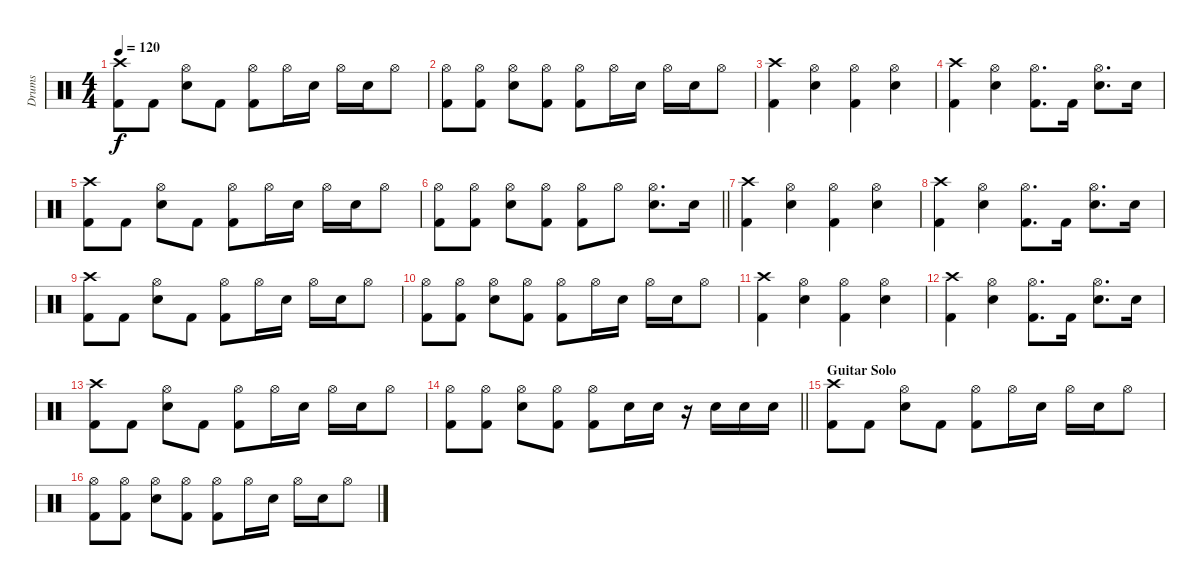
\track ("Drums" "Drums") {instrument percussion}
\staff {score}
\articulation defaults
\ts (4 4)
\tempo 120
\clef neutral
\ks c
("Crash high (hit)" "Kick (hit) 2").8{dy f} "Kick (hit) 2".8 ("Hi-Hat (open)" "Electric Snare (hit)").8 "Kick (hit) 2".8 ("Hi-Hat (open)" "Kick (hit) 2").8 "Hi-Hat (open)".16 "Electric Snare (hit)".16 "Hi-Hat (open)".16 "Electric Snare (hit)".16 "Hi-Hat (open)".8 |
("Hi-Hat (open)" "Kick (hit) 2").8 ("Hi-Hat (open)" "Kick (hit) 2").8 ("Hi-Hat (open)" "Electric Snare (hit)").8 ("Hi-Hat (open)" "Kick (hit) 2").8 ("Hi-Hat (open)" "Kick (hit) 2").8 "Hi-Hat (open)".16 "Electric Snare (hit)".16 "Hi-Hat (open)".16 "Electric Snare (hit)".16 "Hi-Hat (open)".8 |
("Crash high (hit)" "Kick (hit) 2").4 ("Hi-Hat (open)" "Electric Snare (hit)").4 ("Hi-Hat (open)" "Kick (hit) 2").4 ("Hi-Hat (open)" "Electric Snare (hit)").4 |
("Crash high (hit)" "Kick (hit) 2").4 ("Hi-Hat (open)" "Electric Snare (hit)").4 ("Hi-Hat (open)" "Kick (hit) 2").8{d} "Kick (hit) 2".16 ("Hi-Hat (open)" "Electric Snare (hit)").8{d} "Electric Snare (hit)".16 |
("Crash high (hit)" "Kick (hit) 2").8 "Kick (hit) 2".8 ("Hi-Hat (open)" "Electric Snare (hit)").8 "Kick (hit) 2".8 ("Hi-Hat (open)" "Kick (hit) 2").8 "Hi-Hat (open)".16 "Electric Snare (hit)".16 "Hi-Hat (open)".16 "Electric Snare (hit)".16 "Hi-Hat (open)".8 |
\barLineRight lightlight
("Hi-Hat (open)" "Kick (hit) 2").8 ("Hi-Hat (open)" "Kick (hit) 2").8 ("Hi-Hat (open)" "Electric Snare (hit)").8 ("Hi-Hat (open)" "Kick (hit) 2").8 ("Hi-Hat (open)" "Kick (hit) 2").8 "Hi-Hat (open)".8 ("Hi-Hat (open)" "Electric Snare (hit)").8{d} "Electric Snare (hit)".16 |
("Crash high (hit)" "Kick (hit) 2").4 ("Hi-Hat (open)" "Electric Snare (hit)").4 ("Hi-Hat (open)" "Kick (hit) 2").4 ("Hi-Hat (open)" "Electric Snare (hit)").4 |
("Crash high (hit)" "Kick (hit) 2").4 ("Hi-Hat (open)" "Electric Snare (hit)").4 ("Hi-Hat (open)" "Kick (hit) 2").8{d} "Kick (hit) 2".16 ("Hi-Hat (open)" "Electric Snare (hit)").8{d} "Electric Snare (hit)".16 |
("Crash high (hit)" "Kick (hit) 2").8 "Kick (hit) 2".8 ("Hi-Hat (open)" "Electric Snare (hit)").8 "Kick (hit) 2".8 ("Hi-Hat (open)" "Kick (hit) 2").8 "Hi-Hat (open)".16 "Electric Snare (hit)".16 "Hi-Hat (open)".16 "Electric Snare (hit)".16 "Hi-Hat (open)".8 |
("Hi-Hat (open)" "Kick (hit) 2").8 ("Hi-Hat (open)" "Kick (hit) 2").8 ("Hi-Hat (open)" "Electric Snare (hit)").8 ("Hi-Hat (open)" "Kick (hit) 2").8 ("Hi-Hat (open)" "Kick (hit) 2").8 "Hi-Hat (open)".16 "Electric Snare (hit)".16 "Hi-Hat (open)".16 "Electric Snare (hit)".16 "Hi-Hat (open)".8 |
("Crash high (hit)" "Kick (hit) 2").4 ("Hi-Hat (open)" "Electric Snare (hit)").4 ("Hi-Hat (open)" "Kick (hit) 2").4 ("Hi-Hat (open)" "Electric Snare (hit)").4 |
("Crash high (hit)" "Kick (hit) 2").4 ("Hi-Hat (open)" "Electric Snare (hit)").4 ("Hi-Hat (open)" "Kick (hit) 2").8{d} "Kick (hit) 2".16 ("Hi-Hat (open)" "Electric Snare (hit)").8{d} "Electric Snare (hit)".16 |
("Crash high (hit)" "Kick (hit) 2").8 "Kick (hit) 2".8 ("Hi-Hat (open)" "Electric Snare (hit)").8 "Kick (hit) 2".8 ("Hi-Hat (open)" "Kick (hit) 2").8 "Hi-Hat (open)".16 "Electric Snare (hit)".16 "Hi-Hat (open)".16 "Electric Snare (hit)".16 "Hi-Hat (open)".8 |
\barLineRight lightlight
("Hi-Hat (open)" "Kick (hit) 2").8 ("Hi-Hat (open)" "Kick (hit) 2").8 ("Hi-Hat (open)" "Electric Snare (hit)").8 ("Hi-Hat (open)" "Kick (hit) 2").8 ("Hi-Hat (open)" "Kick (hit) 2").8 "Electric Snare (hit)".16 "Electric Snare (hit)".16 r.16 "Electric Snare (hit)".16 "Electric Snare (hit)".16 "Electric Snare (hit)".16 |
\section ("" "Guitar Solo")
("Crash high (hit)" "Kick (hit) 2").8 "Kick (hit) 2".8 ("Hi-Hat (open)" "Electric Snare (hit)").8 "Kick (hit) 2".8 ("Hi-Hat (open)" "Kick (hit) 2").8 "Hi-Hat (open)".16 "Electric Snare (hit)".16 "Hi-Hat (open)".16 "Electric Snare (hit)".16 "Hi-Hat (open)".8 |
("Hi-Hat (open)" "Kick (hit) 2").8 ("Hi-Hat (open)" "Kick (hit) 2").8 ("Hi-Hat (open)" "Electric Snare (hit)").8 ("Hi-Hat (open)" "Kick (hit) 2").8 ("Hi-Hat (open)" "Kick (hit) 2").8 "Hi-Hat (open)".16 "Electric Snare (hit)".16 "Hi-Hat (open)".16 "Electric Snare (hit)".16 "Hi-Hat (open)".8
